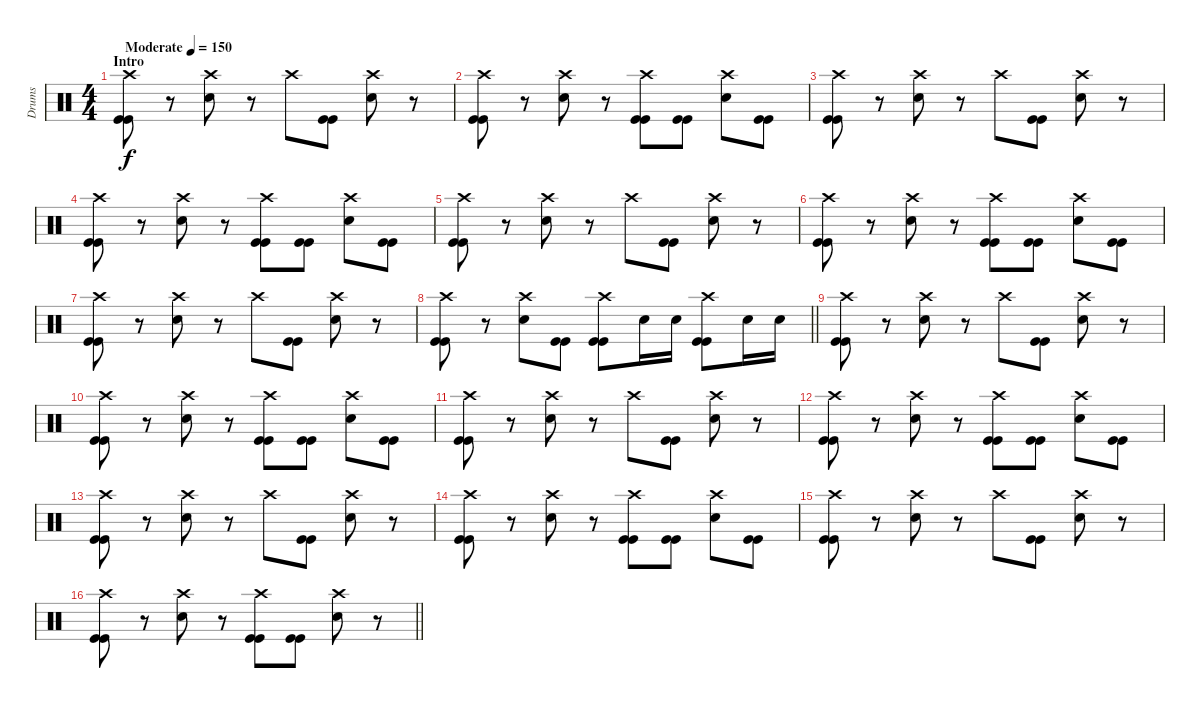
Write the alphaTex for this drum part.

\track ("Drums" "Drums") {instrument percussion}
\staff {score}
\articulation defaults
\ts (4 4)
\section ("" "Intro")
\tempo (150 "Moderate")
\clef neutral
\ks c
("Crash high (hit)" "Kick (hit)" "Kick (hit)").8{dy f} r.8 ("Crash high (hit)" "Snare (hit) 2").8 r.8 "Crash high (hit)".8 ("Kick (hit)" "Kick (hit)").8 ("Crash high (hit)" "Snare (hit) 2").8 r.8 |
("Crash high (hit)" "Kick (hit)" "Kick (hit)").8 r.8 ("Crash high (hit)" "Snare (hit) 2").8 r.8 ("Crash high (hit)" "Kick (hit)" "Kick (hit)").8 ("Kick (hit)" "Kick (hit)").8 ("Crash high (hit)" "Snare (hit) 2").8 ("Kick (hit)" "Kick (hit)").8 |
("Crash high (hit)" "Kick (hit)" "Kick (hit)").8 r.8 ("Crash high (hit)" "Snare (hit) 2").8 r.8 "Crash high (hit)".8 ("Kick (hit)" "Kick (hit)").8 ("Crash high (hit)" "Snare (hit) 2").8 r.8 |
("Crash high (hit)" "Kick (hit)" "Kick (hit)").8 r.8 ("Crash high (hit)" "Snare (hit) 2").8 r.8 ("Crash high (hit)" "Kick (hit)" "Kick (hit)").8 ("Kick (hit)" "Kick (hit)").8 ("Crash high (hit)" "Snare (hit) 2").8 ("Kick (hit)" "Kick (hit)").8 |
("Crash high (hit)" "Kick (hit)" "Kick (hit)").8 r.8 ("Crash high (hit)" "Snare (hit) 2").8 r.8 "Crash high (hit)".8 ("Kick (hit)" "Kick (hit)").8 ("Crash high (hit)" "Snare (hit) 2").8 r.8 |
("Crash high (hit)" "Kick (hit)" "Kick (hit)").8 r.8 ("Crash high (hit)" "Snare (hit) 2").8 r.8 ("Crash high (hit)" "Kick (hit)" "Kick (hit)").8 ("Kick (hit)" "Kick (hit)").8 ("Crash high (hit)" "Snare (hit) 2").8 ("Kick (hit)" "Kick (hit)").8 |
("Crash high (hit)" "Kick (hit)" "Kick (hit)").8 r.8 ("Crash high (hit)" "Snare (hit) 2").8 r.8 "Crash high (hit)".8 ("Kick (hit)" "Kick (hit)").8 ("Crash high (hit)" "Snare (hit) 2").8 r.8 |
\barLineRight lightlight
("Crash high (hit)" "Kick (hit)" "Kick (hit)").8 r.8 ("Crash high (hit)" "Snare (hit) 2").8 ("Kick (hit)" "Kick (hit)").8 ("Crash high (hit)" "Kick (hit)" "Kick (hit)").8 "Snare (hit) 2".16 "Snare (hit) 2".16 ("Crash high (hit)" "Kick (hit)" "Kick (hit)").8 "Snare (hit) 2".16 "Snare (hit) 2".16 |
("Crash high (hit)" "Kick (hit)" "Kick (hit)").8 r.8 ("Crash high (hit)" "Snare (hit) 2").8 r.8 "Crash high (hit)".8 ("Kick (hit)" "Kick (hit)").8 ("Crash high (hit)" "Snare (hit) 2").8 r.8 |
("Crash high (hit)" "Kick (hit)" "Kick (hit)").8 r.8 ("Crash high (hit)" "Snare (hit) 2").8 r.8 ("Crash high (hit)" "Kick (hit)" "Kick (hit)").8 ("Kick (hit)" "Kick (hit)").8 ("Crash high (hit)" "Snare (hit) 2").8 ("Kick (hit)" "Kick (hit)").8 |
("Crash high (hit)" "Kick (hit)" "Kick (hit)").8 r.8 ("Crash high (hit)" "Snare (hit) 2").8 r.8 "Crash high (hit)".8 ("Kick (hit)" "Kick (hit)").8 ("Crash high (hit)" "Snare (hit) 2").8 r.8 |
("Crash high (hit)" "Kick (hit)" "Kick (hit)").8 r.8 ("Crash high (hit)" "Snare (hit) 2").8 r.8 ("Crash high (hit)" "Kick (hit)" "Kick (hit)").8 ("Kick (hit)" "Kick (hit)").8 ("Crash high (hit)" "Snare (hit) 2").8 ("Kick (hit)" "Kick (hit)").8 |
("Crash high (hit)" "Kick (hit)" "Kick (hit)").8 r.8 ("Crash high (hit)" "Snare (hit) 2").8 r.8 "Crash high (hit)".8 ("Kick (hit)" "Kick (hit)").8 ("Crash high (hit)" "Snare (hit) 2").8 r.8 |
("Crash high (hit)" "Kick (hit)" "Kick (hit)").8 r.8 ("Crash high (hit)" "Snare (hit) 2").8 r.8 ("Crash high (hit)" "Kick (hit)" "Kick (hit)").8 ("Kick (hit)" "Kick (hit)").8 ("Crash high (hit)" "Snare (hit) 2").8 ("Kick (hit)" "Kick (hit)").8 |
("Crash high (hit)" "Kick (hit)" "Kick (hit)").8 r.8 ("Crash high (hit)" "Snare (hit) 2").8 r.8 "Crash high (hit)".8 ("Kick (hit)" "Kick (hit)").8 ("Crash high (hit)" "Snare (hit) 2").8 r.8 |
\barLineRight lightlight
("Crash high (hit)" "Kick (hit)" "Kick (hit)").8 r.8 ("Crash high (hit)" "Snare (hit) 2").8 r.8 ("Crash high (hit)" "Kick (hit)" "Kick (hit)").8 ("Kick (hit)" "Kick (hit)").8 ("Crash high (hit)" "Snare (hit) 2").8 r.8
